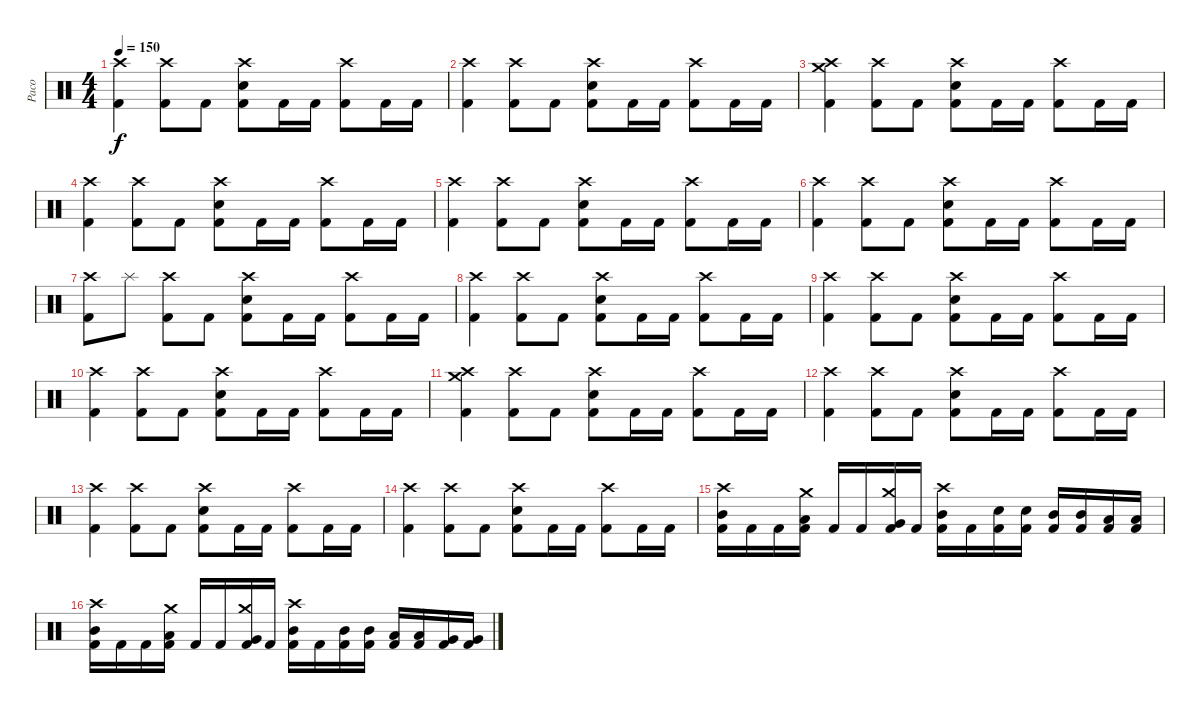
\track ("Paco" "Paco") {instrument percussion}
\staff {score}
\articulation defaults
\ts (4 4)
\tempo 150
\clef neutral
\ks c
("Crash high (hit)" "Kick (hit) 2").4{dy f} ("Crash high (hit)" "Kick (hit) 2").8 "Kick (hit) 2".8 ("Crash high (hit)" "Electric Snare (hit)" "Kick (hit) 2").8 "Kick (hit) 2".16 "Kick (hit) 2".16 ("Crash high (hit)" "Kick (hit) 2").8 "Kick (hit) 2".16 "Kick (hit) 2".16 |
("Crash high (hit)" "Kick (hit) 2").4 ("Crash high (hit)" "Kick (hit) 2").8 "Kick (hit) 2".8 ("Crash high (hit)" "Electric Snare (hit)" "Kick (hit) 2").8 "Kick (hit) 2".16 "Kick (hit) 2".16 ("Crash high (hit)" "Kick (hit) 2").8 "Kick (hit) 2".16 "Kick (hit) 2".16 |
("Crash high (hit)" "Crash medium (hit)" "Kick (hit) 2").4 ("Crash high (hit)" "Kick (hit) 2").8 "Kick (hit) 2".8 ("Crash high (hit)" "Electric Snare (hit)" "Kick (hit) 2").8 "Kick (hit) 2".16 "Kick (hit) 2".16 ("Crash high (hit)" "Kick (hit) 2").8 "Kick (hit) 2".16 "Kick (hit) 2".16 |
("Crash high (hit)" "Kick (hit) 2").4 ("Crash high (hit)" "Kick (hit) 2").8 "Kick (hit) 2".8 ("Crash high (hit)" "Electric Snare (hit)" "Kick (hit) 2").8 "Kick (hit) 2".16 "Kick (hit) 2".16 ("Crash high (hit)" "Kick (hit) 2").8 "Kick (hit) 2".16 "Kick (hit) 2".16 |
("Crash high (hit)" "Kick (hit) 2").4 ("Crash high (hit)" "Kick (hit) 2").8 "Kick (hit) 2".8 ("Crash high (hit)" "Electric Snare (hit)" "Kick (hit) 2").8 "Kick (hit) 2".16 "Kick (hit) 2".16 ("Crash high (hit)" "Kick (hit) 2").8 "Kick (hit) 2".16 "Kick (hit) 2".16 |
("Crash high (hit)" "Kick (hit) 2").4 ("Crash high (hit)" "Kick (hit) 2").8 "Kick (hit) 2".8 ("Crash high (hit)" "Electric Snare (hit)" "Kick (hit) 2").8 "Kick (hit) 2".16 "Kick (hit) 2".16 ("Crash high (hit)" "Kick (hit) 2").8 "Kick (hit) 2".16 "Kick (hit) 2".16 |
("Crash high (hit)" "Kick (hit) 2").8 "Splash (hit)".8 ("Crash high (hit)" "Kick (hit) 2").8 "Kick (hit) 2".8 ("Crash high (hit)" "Electric Snare (hit)" "Kick (hit) 2").8 "Kick (hit) 2".16 "Kick (hit) 2".16 ("Crash high (hit)" "Kick (hit) 2").8 "Kick (hit) 2".16 "Kick (hit) 2".16 |
("Crash high (hit)" "Kick (hit) 2").4 ("Crash high (hit)" "Kick (hit) 2").8 "Kick (hit) 2".8 ("Crash high (hit)" "Electric Snare (hit)" "Kick (hit) 2").8 "Kick (hit) 2".16 "Kick (hit) 2".16 ("Crash high (hit)" "Kick (hit) 2").8 "Kick (hit) 2".16 "Kick (hit) 2".16 |
("Crash high (hit)" "Kick (hit) 2").4 ("Crash high (hit)" "Kick (hit) 2").8 "Kick (hit) 2".8 ("Crash high (hit)" "Electric Snare (hit)" "Kick (hit) 2").8 "Kick (hit) 2".16 "Kick (hit) 2".16 ("Crash high (hit)" "Kick (hit) 2").8 "Kick (hit) 2".16 "Kick (hit) 2".16 |
("Crash high (hit)" "Kick (hit) 2").4 ("Crash high (hit)" "Kick (hit) 2").8 "Kick (hit) 2".8 ("Crash high (hit)" "Electric Snare (hit)" "Kick (hit) 2").8 "Kick (hit) 2".16 "Kick (hit) 2".16 ("Crash high (hit)" "Kick (hit) 2").8 "Kick (hit) 2".16 "Kick (hit) 2".16 |
("Crash high (hit)" "Crash medium (hit)" "Kick (hit) 2").4 ("Crash high (hit)" "Kick (hit) 2").8 "Kick (hit) 2".8 ("Crash high (hit)" "Electric Snare (hit)" "Kick (hit) 2").8 "Kick (hit) 2".16 "Kick (hit) 2".16 ("Crash high (hit)" "Kick (hit) 2").8 "Kick (hit) 2".16 "Kick (hit) 2".16 |
("Crash high (hit)" "Kick (hit) 2").4 ("Crash high (hit)" "Kick (hit) 2").8 "Kick (hit) 2".8 ("Crash high (hit)" "Electric Snare (hit)" "Kick (hit) 2").8 "Kick (hit) 2".16 "Kick (hit) 2".16 ("Crash high (hit)" "Kick (hit) 2").8 "Kick (hit) 2".16 "Kick (hit) 2".16 |
("Crash high (hit)" "Kick (hit) 2").4 ("Crash high (hit)" "Kick (hit) 2").8 "Kick (hit) 2".8 ("Crash high (hit)" "Electric Snare (hit)" "Kick (hit) 2").8 "Kick (hit) 2".16 "Kick (hit) 2".16 ("Crash high (hit)" "Kick (hit) 2").8 "Kick (hit) 2".16 "Kick (hit) 2".16 |
("Crash high (hit)" "Kick (hit) 2").4 ("Crash high (hit)" "Kick (hit) 2").8 "Kick (hit) 2".8 ("Crash high (hit)" "Electric Snare (hit)" "Kick (hit) 2").8 "Kick (hit) 2".16 "Kick (hit) 2".16 ("Crash high (hit)" "Kick (hit) 2").8 "Kick (hit) 2".16 "Kick (hit) 2".16 |
("Crash high (hit)" "Mid Tom (hit)" "Kick (hit) 2").16 "Kick (hit) 2".16 "Kick (hit) 2".16 ("Crash medium (hit)" "Low Tom (hit)" "Kick (hit) 2").16 "Kick (hit) 2".16 "Kick (hit) 2".16 ("Crash medium (hit)" "Very Low Tom (hit)" "Kick (hit) 2").16 "Kick (hit) 2".16 ("Crash high (hit)" "Mid Tom (hit)" "Kick (hit) 2").16 "Kick (hit) 2".16 ("Electric Snare (hit)" "Kick (hit) 2").16 ("Electric Snare (hit)" "Kick (hit) 2").16 ("Mid Tom (hit)" "Kick (hit) 2").16 ("Mid Tom (hit)" "Kick (hit) 2").16 ("Low Tom (hit)" "Kick (hit) 2").16 ("Low Tom (hit)" "Kick (hit) 2").16 |
("Crash high (hit)" "Mid Tom (hit)" "Kick (hit) 2").16 "Kick (hit) 2".16 "Kick (hit) 2".16 ("Crash medium (hit)" "Low Tom (hit)" "Kick (hit) 2").16 "Kick (hit) 2".16 "Kick (hit) 2".16 ("Crash medium (hit)" "Very Low Tom (hit)" "Kick (hit) 2").16 "Kick (hit) 2".16 ("Crash high (hit)" "Mid Tom (hit)" "Kick (hit) 2").16 "Kick (hit) 2".16 ("Mid Tom (hit)" "Kick (hit) 2").16 ("Mid Tom (hit)" "Kick (hit) 2").16 ("Low Tom (hit)" "Kick (hit) 2").16 ("Low Tom (hit)" "Kick (hit) 2").16 ("Very Low Tom (hit)" "Kick (hit) 2").16 ("Very Low Tom (hit)" "Kick (hit) 2").16
